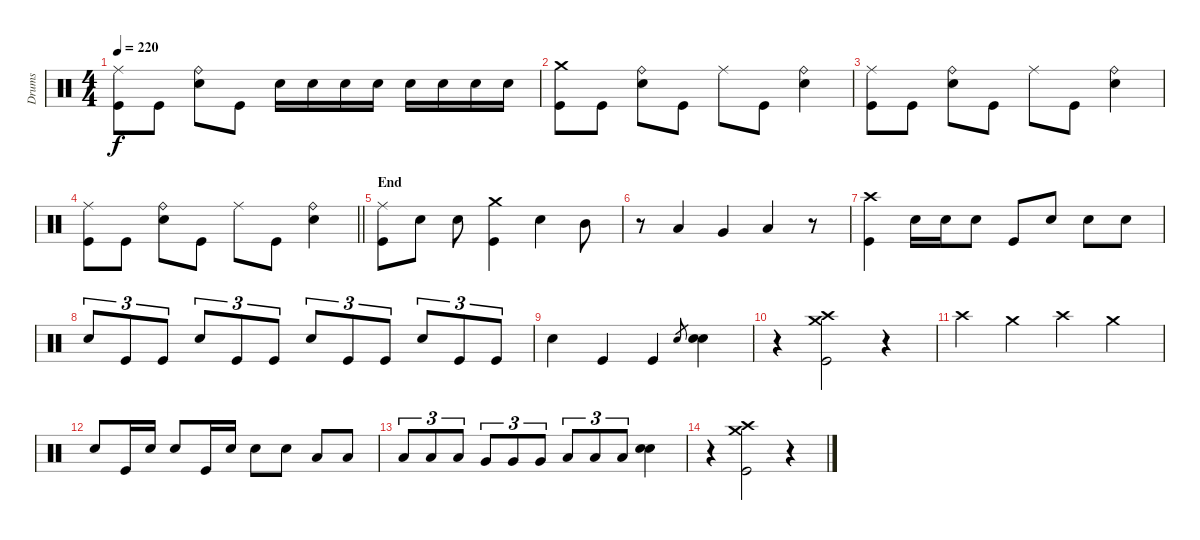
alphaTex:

\track ("Drums" "Drums") {instrument percussion}
\staff {score}
\articulation defaults
\ts (4 4)
\tempo 220
\clef neutral
\ks c
("Ride (middle)" "Kick (hit)").8{dy f} "Kick (hit)".8 ("Ride (bell)" "Snare (hit) 2").8 "Kick (hit)".8 "Snare (hit) 2".16 "Snare (hit) 2".16 "Snare (hit) 2".16 "Snare (hit) 2".16 "Snare (hit) 2".16 "Snare (hit) 2".16 "Snare (hit) 2".16 "Snare (hit) 2".16 |
("Crash medium (hit)" "Kick (hit)").8 "Kick (hit)".8 ("Ride (bell)" "Snare (hit) 2").8 "Kick (hit)".8 "Ride (middle)".8 "Kick (hit)".8 ("Ride (bell)" "Snare (hit) 2").4 |
("Ride (middle)" "Kick (hit)").8 "Kick (hit)".8 ("Ride (bell)" "Snare (hit) 2").8 "Kick (hit)".8 "Ride (middle)".8 "Kick (hit)".8 ("Ride (bell)" "Snare (hit) 2").4 |
\barLineRight lightlight
("Ride (middle)" "Kick (hit)").8 "Kick (hit)".8 ("Ride (bell)" "Snare (hit) 2").8 "Kick (hit)".8 "Ride (middle)".8 "Kick (hit)".8 ("Ride (bell)" "Snare (hit) 2").4 |
\section ("" "End")
("Ride (middle)" "Kick (hit)").8 "Snare (hit) 2".8 "Snare (hit) 2".8 ("Crash medium (hit)" "Kick (hit)").4 "Snare (hit) 2".4 "Mid Tom (hit)".8 |
r.8 "Low Tom (hit)".4 "Very Low Tom (hit)".4 "Low Floor Tom (hit)".4 r.8 |
("Crash high (hit)" "Kick (hit)").4 "Snare (hit) 2".16 "Snare (hit) 2".16 "Snare (hit) 2".8 "Kick (hit)".8 "Snare (hit) 2".8 "Snare (hit) 2".8 "Snare (hit) 2".8 |
"Snare (hit) 2".8{tu (3 2)} "Kick (hit)".8{tu (3 2)} "Kick (hit)".8{tu (3 2)} "Snare (hit) 2".8{tu (3 2)} "Kick (hit)".8{tu (3 2)} "Kick (hit)".8{tu (3 2)} "Snare (hit) 2".8{tu (3 2)} "Kick (hit)".8{tu (3 2)} "Kick (hit)".8{tu (3 2)} "Snare (hit) 2".8{tu (3 2)} "Kick (hit)".8{tu (3 2)} "Kick (hit)".8{tu (3 2)} |
"Snare (hit) 2".4 "Kick (hit)".4 "Kick (hit)".4 "Snare (hit) 2".8{gr} ("Snare (hit) 2" "Snare (hit) 2").4 |
r.4 ("Crash medium (hit)" "Crash high (hit)" "Kick (hit)").2 r.4 |
"Crash high (hit)".4 "Crash medium (hit)".4 "Crash high (hit)".4 "Crash medium (hit)".4 |
"Snare (hit) 2".8 "Kick (hit)".16 "Snare (hit) 2".16 "Snare (hit) 2".8 "Kick (hit)".16 "Snare (hit) 2".16 "Snare (hit) 2".8 "Snare (hit) 2".8 "Low Tom (hit)".8 "Low Tom (hit)".8 |
"Low Tom (hit)".8{tu (3 2)} "Low Tom (hit)".8{tu (3 2)} "Low Tom (hit)".8{tu (3 2)} "Very Low Tom (hit)".8{tu (3 2)} "Very Low Tom (hit)".8{tu (3 2)} "Very Low Tom (hit)".8{tu (3 2)} "Low Floor Tom (hit)".8{tu (3 2)} "Low Floor Tom (hit)".8{tu (3 2)} "Low Floor Tom (hit)".8{tu (3 2)} ("Snare (hit) 2" "Snare (hit) 2").4 |
r.4 ("Crash high (hit)" "Crash medium (hit)" "Kick (hit)").2 r.4
